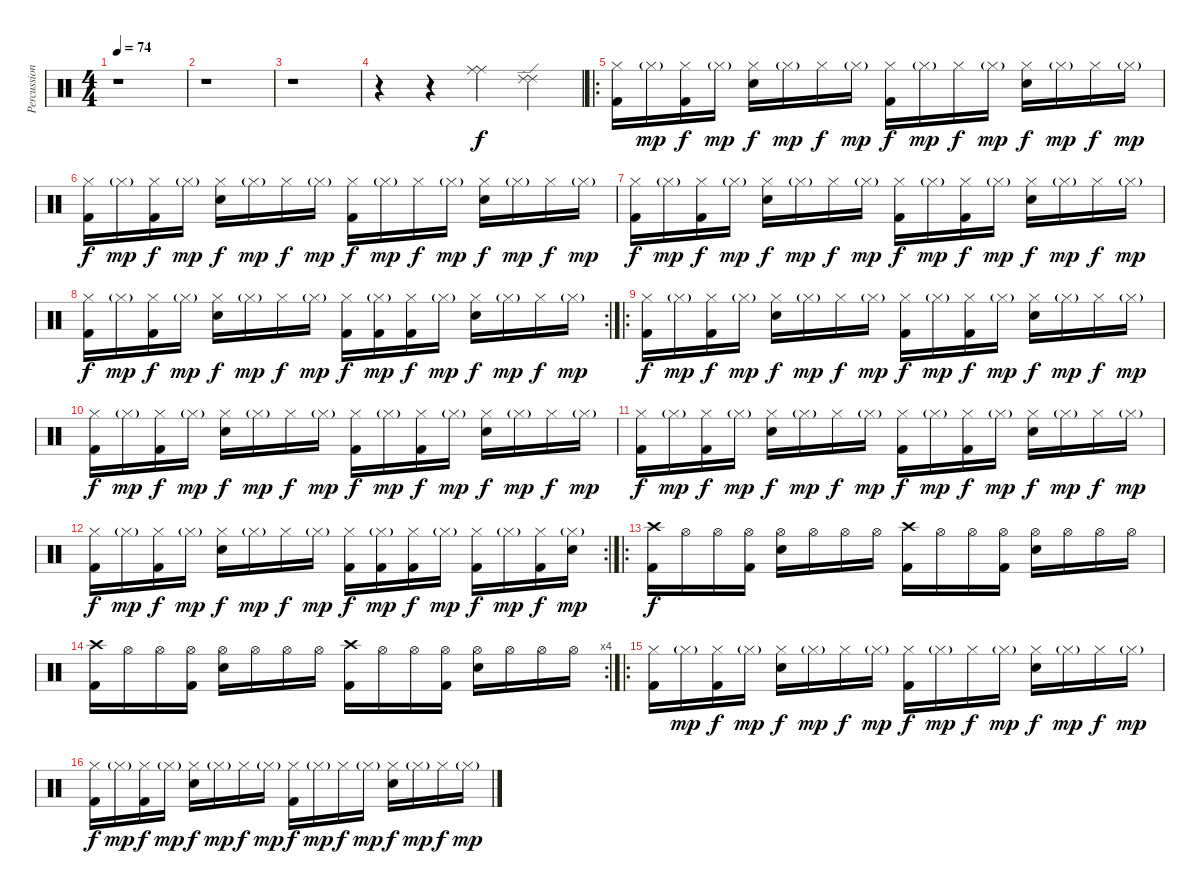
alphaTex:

\track ("Percussions" "Percussion") {instrument percussion}
\staff {score}
\articulation defaults
\ts (4 4)
\tempo 74
\clef neutral
\ks c
r.1{dy f} |
r.1 |
r.1 |
r.4 r.4 ("Ride (middle)" "Ride (middle)").4 ("Ride (edge) 2" "Ride (edge) 2").4 |
\ro
("Hi-Hat (closed)" "Kick (hit) 2").16 "Hi-Hat (closed)"{g}.16{dy mp} ("Hi-Hat (closed)" "Kick (hit) 2").16{dy f} "Hi-Hat (closed)"{g}.16{dy mp} ("Hi-Hat (closed)" "Snare (hit) 2").16{dy f} "Hi-Hat (closed)"{g}.16{dy mp} "Hi-Hat (closed)".16{dy f} "Hi-Hat (closed)"{g}.16{dy mp} ("Hi-Hat (closed)" "Kick (hit) 2").16{dy f} "Hi-Hat (closed)"{g}.16{dy mp} "Hi-Hat (closed)".16{dy f} "Hi-Hat (closed)"{g}.16{dy mp} ("Hi-Hat (closed)" "Snare (hit) 2").16{dy f} "Hi-Hat (closed)"{g}.16{dy mp} "Hi-Hat (closed)".16{dy f} "Hi-Hat (closed)"{g}.16{dy mp} |
("Hi-Hat (closed)" "Kick (hit) 2").16{dy f} "Hi-Hat (closed)"{g}.16{dy mp} ("Hi-Hat (closed)" "Kick (hit) 2").16{dy f} "Hi-Hat (closed)"{g}.16{dy mp} ("Hi-Hat (closed)" "Snare (hit) 2").16{dy f} "Hi-Hat (closed)"{g}.16{dy mp} "Hi-Hat (closed)".16{dy f} "Hi-Hat (closed)"{g}.16{dy mp} ("Hi-Hat (closed)" "Kick (hit) 2").16{dy f} "Hi-Hat (closed)"{g}.16{dy mp} "Hi-Hat (closed)".16{dy f} "Hi-Hat (closed)"{g}.16{dy mp} ("Hi-Hat (closed)" "Snare (hit) 2").16{dy f} "Hi-Hat (closed)"{g}.16{dy mp} "Hi-Hat (closed)".16{dy f} "Hi-Hat (closed)"{g}.16{dy mp} |
("Hi-Hat (closed)" "Kick (hit) 2").16{dy f} "Hi-Hat (closed)"{g}.16{dy mp} ("Hi-Hat (closed)" "Kick (hit) 2").16{dy f} "Hi-Hat (closed)"{g}.16{dy mp} ("Hi-Hat (closed)" "Snare (hit) 2").16{dy f} "Hi-Hat (closed)"{g}.16{dy mp} "Hi-Hat (closed)".16{dy f} "Hi-Hat (closed)"{g}.16{dy mp} ("Hi-Hat (closed)" "Kick (hit) 2").16{dy f} "Hi-Hat (closed)"{g}.16{dy mp} ("Hi-Hat (closed)" "Kick (hit) 2").16{dy f} "Hi-Hat (closed)"{g}.16{dy mp} ("Hi-Hat (closed)" "Snare (hit) 2").16{dy f} "Hi-Hat (closed)"{g}.16{dy mp} "Hi-Hat (closed)".16{dy f} "Hi-Hat (closed)"{g}.16{dy mp} |
\rc 2
("Hi-Hat (closed)" "Kick (hit) 2").16{dy f} "Hi-Hat (closed)"{g}.16{dy mp} ("Hi-Hat (closed)" "Kick (hit) 2").16{dy f} "Hi-Hat (closed)"{g}.16{dy mp} ("Hi-Hat (closed)" "Snare (hit) 2").16{dy f} "Hi-Hat (closed)"{g}.16{dy mp} "Hi-Hat (closed)".16{dy f} "Hi-Hat (closed)"{g}.16{dy mp} ("Hi-Hat (closed)" "Kick (hit) 2").16{dy f} ("Hi-Hat (closed)"{g} "Kick (hit) 2").16{dy mp} ("Hi-Hat (closed)" "Kick (hit) 2").16{dy f} "Hi-Hat (closed)"{g}.16{dy mp} ("Hi-Hat (closed)" "Snare (hit) 2").16{dy f} "Hi-Hat (closed)"{g}.16{dy mp} "Hi-Hat (closed)".16{dy f} "Hi-Hat (closed)"{g}.16{dy mp} |
\ro
("Hi-Hat (closed)" "Kick (hit) 2").16{dy f} "Hi-Hat (closed)"{g}.16{dy mp} ("Hi-Hat (closed)" "Kick (hit) 2").16{dy f} "Hi-Hat (closed)"{g}.16{dy mp} ("Hi-Hat (closed)" "Snare (hit) 2").16{dy f} "Hi-Hat (closed)"{g}.16{dy mp} "Hi-Hat (closed)".16{dy f} "Hi-Hat (closed)"{g}.16{dy mp} ("Hi-Hat (closed)" "Kick (hit) 2").16{dy f} "Hi-Hat (closed)"{g}.16{dy mp} ("Hi-Hat (closed)" "Kick (hit) 2").16{dy f} "Hi-Hat (closed)"{g}.16{dy mp} ("Hi-Hat (closed)" "Snare (hit) 2").16{dy f} "Hi-Hat (closed)"{g}.16{dy mp} "Hi-Hat (closed)".16{dy f} "Hi-Hat (closed)"{g}.16{dy mp} |
("Hi-Hat (closed)" "Kick (hit) 2").16{dy f} "Hi-Hat (closed)"{g}.16{dy mp} ("Hi-Hat (closed)" "Kick (hit) 2").16{dy f} "Hi-Hat (closed)"{g}.16{dy mp} ("Hi-Hat (closed)" "Snare (hit) 2").16{dy f} "Hi-Hat (closed)"{g}.16{dy mp} "Hi-Hat (closed)".16{dy f} "Hi-Hat (closed)"{g}.16{dy mp} ("Hi-Hat (closed)" "Kick (hit) 2").16{dy f} "Hi-Hat (closed)"{g}.16{dy mp} ("Hi-Hat (closed)" "Kick (hit) 2").16{dy f} "Hi-Hat (closed)"{g}.16{dy mp} ("Hi-Hat (closed)" "Snare (hit) 2").16{dy f} "Hi-Hat (closed)"{g}.16{dy mp} "Hi-Hat (closed)".16{dy f} "Hi-Hat (closed)"{g}.16{dy mp} |
("Hi-Hat (closed)" "Kick (hit) 2").16{dy f} "Hi-Hat (closed)"{g}.16{dy mp} ("Hi-Hat (closed)" "Kick (hit) 2").16{dy f} "Hi-Hat (closed)"{g}.16{dy mp} ("Hi-Hat (closed)" "Snare (hit) 2").16{dy f} "Hi-Hat (closed)"{g}.16{dy mp} "Hi-Hat (closed)".16{dy f} "Hi-Hat (closed)"{g}.16{dy mp} ("Hi-Hat (closed)" "Kick (hit) 2").16{dy f} "Hi-Hat (closed)"{g}.16{dy mp} ("Hi-Hat (closed)" "Kick (hit) 2").16{dy f} "Hi-Hat (closed)"{g}.16{dy mp} ("Hi-Hat (closed)" "Snare (hit) 2").16{dy f} "Hi-Hat (closed)"{g}.16{dy mp} "Hi-Hat (closed)".16{dy f} "Hi-Hat (closed)"{g}.16{dy mp} |
\rc 2
("Hi-Hat (closed)" "Kick (hit) 2").16{dy f} "Hi-Hat (closed)"{g}.16{dy mp} ("Hi-Hat (closed)" "Kick (hit) 2").16{dy f} "Hi-Hat (closed)"{g}.16{dy mp} ("Hi-Hat (closed)" "Snare (hit) 2").16{dy f} "Hi-Hat (closed)"{g}.16{dy mp} "Hi-Hat (closed)".16{dy f} "Hi-Hat (closed)"{g}.16{dy mp} ("Hi-Hat (closed)" "Kick (hit) 2").16{dy f} ("Hi-Hat (closed)"{g} "Kick (hit) 2").16{dy mp} ("Hi-Hat (closed)" "Kick (hit) 2").16{dy f} "Hi-Hat (closed)"{g}.16{dy mp} ("Hi-Hat (closed)" "Kick (hit) 2").16{dy f} "Hi-Hat (closed)"{g}.16{dy mp} ("Hi-Hat (closed)" "Kick (hit) 2").16{dy f} ("Hi-Hat (closed)"{g} "Snare (hit) 2").16{dy mp} |
\ro
("Crash high (hit)" "Kick (hit) 2").16{dy f} "Hi-Hat (open)".16 "Hi-Hat (open)".16 ("Hi-Hat (open)" "Kick (hit) 2").16 ("Hi-Hat (open)" "Snare (hit) 2").16 "Hi-Hat (open)".16 "Hi-Hat (open)".16 "Hi-Hat (open)".16 ("Crash high (hit)" "Kick (hit) 2").16 "Hi-Hat (open)".16 "Hi-Hat (open)".16 ("Hi-Hat (open)" "Kick (hit) 2").16 ("Hi-Hat (open)" "Snare (hit) 2").16 "Hi-Hat (open)".16 "Hi-Hat (open)".16 "Hi-Hat (open)".16 |
\rc 4
("Crash high (hit)" "Kick (hit) 2").16 "Hi-Hat (open)".16 "Hi-Hat (open)".16 ("Hi-Hat (open)" "Kick (hit) 2").16 ("Hi-Hat (open)" "Snare (hit) 2").16 "Hi-Hat (open)".16 "Hi-Hat (open)".16 "Hi-Hat (open)".16 ("Crash high (hit)" "Kick (hit) 2").16 "Hi-Hat (open)".16 "Hi-Hat (open)".16 ("Hi-Hat (open)" "Kick (hit) 2").16 ("Hi-Hat (open)" "Snare (hit) 2").16 "Hi-Hat (open)".16 "Hi-Hat (open)".16 "Hi-Hat (open)".16 |
\ro
("Hi-Hat (closed)" "Kick (hit) 2").16 "Hi-Hat (closed)"{g}.16{dy mp} ("Hi-Hat (closed)" "Kick (hit) 2").16{dy f} "Hi-Hat (closed)"{g}.16{dy mp} ("Hi-Hat (closed)" "Snare (hit) 2").16{dy f} "Hi-Hat (closed)"{g}.16{dy mp} "Hi-Hat (closed)".16{dy f} "Hi-Hat (closed)"{g}.16{dy mp} ("Hi-Hat (closed)" "Kick (hit) 2").16{dy f} "Hi-Hat (closed)"{g}.16{dy mp} "Hi-Hat (closed)".16{dy f} "Hi-Hat (closed)"{g}.16{dy mp} ("Hi-Hat (closed)" "Snare (hit) 2").16{dy f} "Hi-Hat (closed)"{g}.16{dy mp} "Hi-Hat (closed)".16{dy f} "Hi-Hat (closed)"{g}.16{dy mp} |
("Hi-Hat (closed)" "Kick (hit) 2").16{dy f} "Hi-Hat (closed)"{g}.16{dy mp} ("Hi-Hat (closed)" "Kick (hit) 2").16{dy f} "Hi-Hat (closed)"{g}.16{dy mp} ("Hi-Hat (closed)" "Snare (hit) 2").16{dy f} "Hi-Hat (closed)"{g}.16{dy mp} "Hi-Hat (closed)".16{dy f} "Hi-Hat (closed)"{g}.16{dy mp} ("Hi-Hat (closed)" "Kick (hit) 2").16{dy f} "Hi-Hat (closed)"{g}.16{dy mp} "Hi-Hat (closed)".16{dy f} "Hi-Hat (closed)"{g}.16{dy mp} ("Hi-Hat (closed)" "Snare (hit) 2").16{dy f} "Hi-Hat (closed)"{g}.16{dy mp} "Hi-Hat (closed)".16{dy f} "Hi-Hat (closed)"{g}.16{dy mp}
